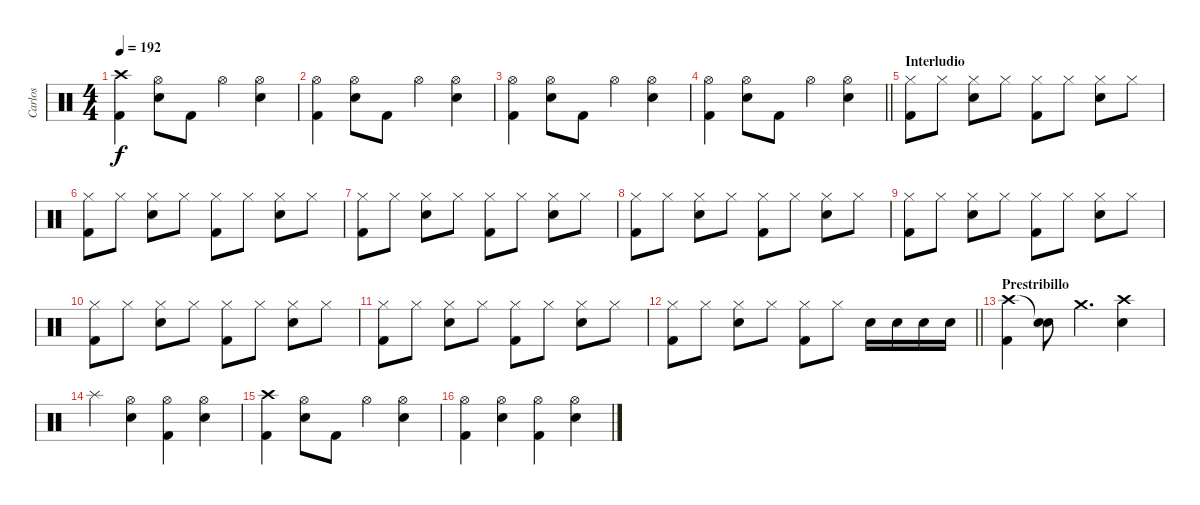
\track ("Carlos" "Carlos") {instrument percussion}
\staff {score}
\articulation defaults
\ts (4 4)
\tempo 192
\clef neutral
\ks c
("Crash high (hit)" "Kick (hit) 2").4{dy f} ("Hi-Hat (open)" "Snare (hit) 2").8 "Kick (hit) 2".8 "Hi-Hat (open)".4 ("Hi-Hat (open)" "Snare (hit) 2").4 |
("Hi-Hat (open)" "Kick (hit) 2").4 ("Hi-Hat (open)" "Snare (hit) 2").8 "Kick (hit) 2".8 "Hi-Hat (open)".4 ("Hi-Hat (open)" "Snare (hit) 2").4 |
("Hi-Hat (open)" "Kick (hit) 2").4 ("Hi-Hat (open)" "Snare (hit) 2").8 "Kick (hit) 2".8 "Hi-Hat (open)".4 ("Hi-Hat (open)" "Snare (hit) 2").4 |
\barLineRight lightlight
("Hi-Hat (open)" "Kick (hit) 2").4 ("Hi-Hat (open)" "Snare (hit) 2").8 "Kick (hit) 2".8 "Hi-Hat (open)".4 ("Hi-Hat (open)" "Snare (hit) 2").4 |
\section ("" "Interludio")
("Hi-Hat (closed)" "Kick (hit) 2").8 "Hi-Hat (closed)".8 ("Hi-Hat (closed)" "Snare (hit) 2").8 "Hi-Hat (closed)".8 ("Hi-Hat (closed)" "Kick (hit) 2").8 "Hi-Hat (closed)".8 ("Hi-Hat (closed)" "Snare (hit) 2").8 "Hi-Hat (closed)".8 |
("Hi-Hat (closed)" "Kick (hit) 2").8 "Hi-Hat (closed)".8 ("Hi-Hat (closed)" "Snare (hit) 2").8 "Hi-Hat (closed)".8 ("Hi-Hat (closed)" "Kick (hit) 2").8 "Hi-Hat (closed)".8 ("Hi-Hat (closed)" "Snare (hit) 2").8 "Hi-Hat (closed)".8 |
("Hi-Hat (closed)" "Kick (hit) 2").8 "Hi-Hat (closed)".8 ("Hi-Hat (closed)" "Snare (hit) 2").8 "Hi-Hat (closed)".8 ("Hi-Hat (closed)" "Kick (hit) 2").8 "Hi-Hat (closed)".8 ("Hi-Hat (closed)" "Snare (hit) 2").8 "Hi-Hat (closed)".8 |
("Hi-Hat (closed)" "Kick (hit) 2").8 "Hi-Hat (closed)".8 ("Hi-Hat (closed)" "Snare (hit) 2").8 "Hi-Hat (closed)".8 ("Hi-Hat (closed)" "Kick (hit) 2").8 "Hi-Hat (closed)".8 ("Hi-Hat (closed)" "Snare (hit) 2").8 "Hi-Hat (closed)".8 |
("Hi-Hat (closed)" "Kick (hit) 2").8 "Hi-Hat (closed)".8 ("Hi-Hat (closed)" "Snare (hit) 2").8 "Hi-Hat (closed)".8 ("Hi-Hat (closed)" "Kick (hit) 2").8 "Hi-Hat (closed)".8 ("Hi-Hat (closed)" "Snare (hit) 2").8 "Hi-Hat (closed)".8 |
("Hi-Hat (closed)" "Kick (hit) 2").8 "Hi-Hat (closed)".8 ("Hi-Hat (closed)" "Snare (hit) 2").8 "Hi-Hat (closed)".8 ("Hi-Hat (closed)" "Kick (hit) 2").8 "Hi-Hat (closed)".8 ("Hi-Hat (closed)" "Snare (hit) 2").8 "Hi-Hat (closed)".8 |
("Hi-Hat (closed)" "Kick (hit) 2").8 "Hi-Hat (closed)".8 ("Hi-Hat (closed)" "Snare (hit) 2").8 "Hi-Hat (closed)".8 ("Hi-Hat (closed)" "Kick (hit) 2").8 "Hi-Hat (closed)".8 ("Hi-Hat (closed)" "Snare (hit) 2").8 "Hi-Hat (closed)".8 |
\barLineRight lightlight
("Hi-Hat (closed)" "Kick (hit) 2").8 "Hi-Hat (closed)".8 ("Hi-Hat (closed)" "Snare (hit) 2").8 "Hi-Hat (closed)".8 ("Hi-Hat (closed)" "Kick (hit) 2").8 "Hi-Hat (closed)".8 "Snare (hit) 2".16 "Snare (hit) 2".16 "Snare (hit) 2".16 "Snare (hit) 2".16 |
\section ("" "Prestribillo")
("Crash high (hit)" "Kick (hit) 2").4 ("Snare (hit)"{t} "Snare (hit) 2").8 "Crash medium (hit)".4{d} ("Crash high (hit)" "Snare (hit) 2").4 |
"Splash (hit)".4 ("Hi-Hat (open)" "Snare (hit) 2").4 ("Hi-Hat (open)" "Kick (hit) 2").4 ("Hi-Hat (open)" "Snare (hit) 2").4 |
("Crash high (hit)" "Kick (hit) 2").4 ("Hi-Hat (open)" "Snare (hit) 2").8 "Kick (hit) 2".8 "Hi-Hat (open)".4 ("Hi-Hat (open)" "Snare (hit) 2").4 |
("Hi-Hat (open)" "Kick (hit) 2").4 ("Hi-Hat (open)" "Snare (hit) 2").4 ("Hi-Hat (open)" "Kick (hit) 2").4 ("Hi-Hat (open)" "Snare (hit) 2").4
